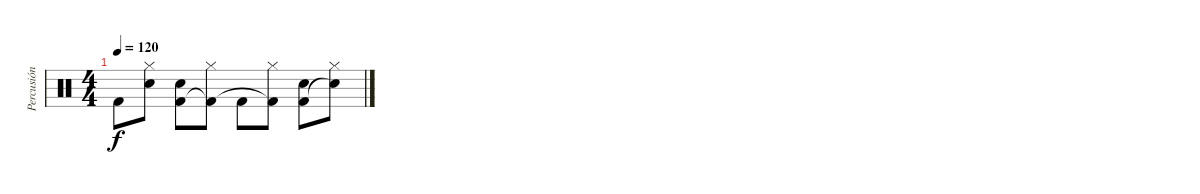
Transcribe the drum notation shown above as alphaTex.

\track ("Percusión" "Percusión") {instrument percussion}
\staff {score}
\articulation defaults
\ts (4 4)
\tempo 120
\clef neutral
\ks c "Kick (hit) 2".8{dy f}
("Hi-Hat (closed)" "Snare (hit)"{t}).8 ("Electric Snare (hit)" "Kick (hit) 2").8 ("Hi-Hat (closed)" "Kick (hit) 2"{t}).8 "Kick (hit) 2".8 ("Hi-Hat (closed)" "Kick (hit) 2"{t}).8 ("Electric Snare (hit)" "Kick (hit) 2").8 ("Hi-Hat (closed)" "Snare (hit)"{t}).8
